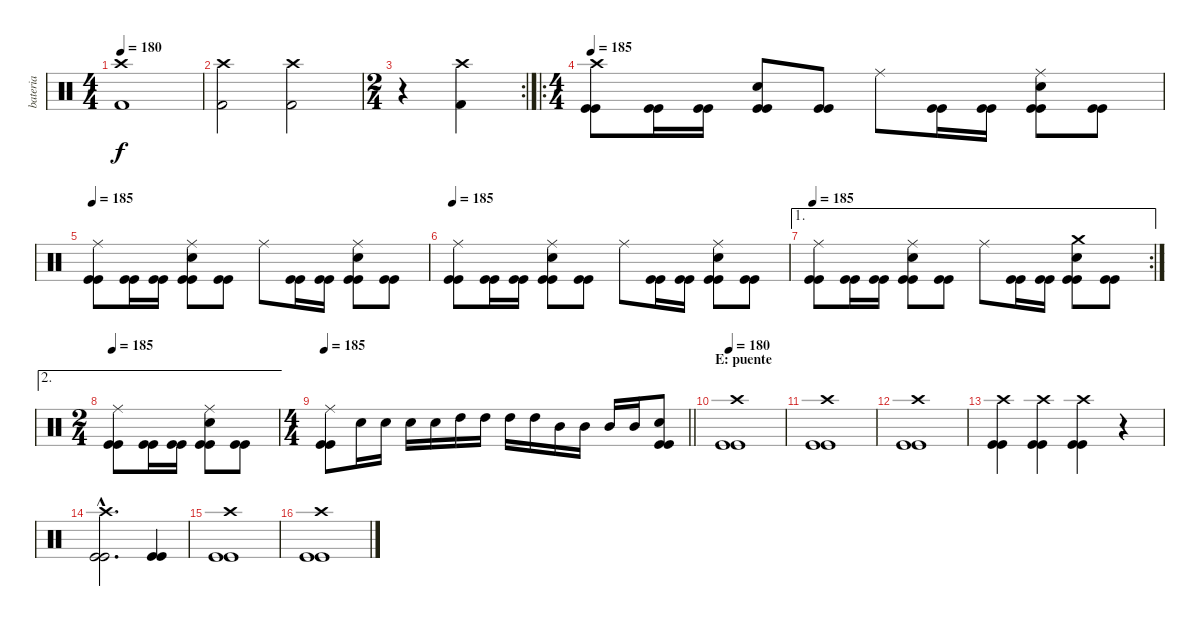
\track ("bateria" "bateria") {instrument percussion}
\staff {score}
\articulation defaults
\ts (4 4)
\tempo 180
\clef neutral
\ks c
("Crash high (hit)" "Kick (hit) 2").1{dy f} |
("Crash high (hit)" "Kick (hit) 2").2 ("Crash high (hit)" "Kick (hit) 2").2 |
\rc 2
\ts (2 4)
r.4 ("Crash high (hit)" "Kick (hit) 2").4 |
\ro
\ts (4 4)
\tempo 185
("Crash high (hit)" "Kick (hit)" "Kick (hit)").8 ("Kick (hit)" "Kick (hit)").16 ("Kick (hit)" "Kick (hit)").16 ("Snare (hit) 2" "Kick (hit)" "Kick (hit)").8 ("Kick (hit)" "Kick (hit)").8 "Ride (middle)".8 ("Kick (hit)" "Kick (hit)").16 ("Kick (hit)" "Kick (hit)").16 ("Ride (middle)" "Snare (hit) 2" "Kick (hit)" "Kick (hit)").8 ("Kick (hit)" "Kick (hit)").8 |
\tempo 185
("Ride (middle)" "Kick (hit)" "Kick (hit)").8 ("Kick (hit)" "Kick (hit)").16 ("Kick (hit)" "Kick (hit)").16 ("Ride (middle)" "Snare (hit) 2" "Kick (hit)" "Kick (hit)").8 ("Kick (hit)" "Kick (hit)").8 "Ride (middle)".8 ("Kick (hit)" "Kick (hit)").16 ("Kick (hit)" "Kick (hit)").16 ("Ride (middle)" "Snare (hit) 2" "Kick (hit)" "Kick (hit)").8 ("Kick (hit)" "Kick (hit)").8 |
\tempo 185
("Ride (middle)" "Kick (hit)" "Kick (hit)").8 ("Kick (hit)" "Kick (hit)").16 ("Kick (hit)" "Kick (hit)").16 ("Ride (middle)" "Snare (hit) 2" "Kick (hit)" "Kick (hit)").8 ("Kick (hit)" "Kick (hit)").8 "Ride (middle)".8 ("Kick (hit)" "Kick (hit)").16 ("Kick (hit)" "Kick (hit)").16 ("Ride (middle)" "Snare (hit) 2" "Kick (hit)" "Kick (hit)").8 ("Kick (hit)" "Kick (hit)").8 |
\ae 1
\rc 2
\tempo 185
("Ride (middle)" "Kick (hit)" "Kick (hit)").8 ("Kick (hit)" "Kick (hit)").16 ("Kick (hit)" "Kick (hit)").16 ("Ride (middle)" "Snare (hit) 2" "Kick (hit)" "Kick (hit)").8 ("Kick (hit)" "Kick (hit)").8 "Ride (middle)".8 ("Kick (hit)" "Kick (hit)").16 ("Kick (hit)" "Kick (hit)").16 ("Crash medium (hit)" "Snare (hit) 2" "Kick (hit)" "Kick (hit)").8 ("Kick (hit)" "Kick (hit)").8 |
\ae 2
\ts (2 4)
\tempo 185
("Ride (middle)" "Kick (hit)" "Kick (hit)").8 ("Kick (hit)" "Kick (hit)").16 ("Kick (hit)" "Kick (hit)").16 ("Ride (middle)" "Snare (hit) 2" "Kick (hit)" "Kick (hit)").8 ("Kick (hit)" "Kick (hit)").8 |
\ts (4 4)
\tempo 185
\barLineRight lightlight
("Ride (middle)" "Kick (hit)" "Kick (hit)").8 "Snare (hit) 2".16 "Snare (hit) 2".16 "Snare (hit) 2".16 "Snare (hit) 2".16 "High Tom (hit)".16 "High Tom (hit)".16 "High Tom (hit)".16 "High Tom (hit)".16 "Mid Tom (hit)".16 "Mid Tom (hit)".16 "Mid Tom (hit)".16 "Mid Tom (hit)".16 ("Snare (hit) 2" "Kick (hit)" "Kick (hit)").8 |
\section ("" "E: puente")
\tempo 180
("Crash high (hit)" "Kick (hit)" "Kick (hit)").1 |
("Crash high (hit)" "Kick (hit)" "Kick (hit)").1 |
("Crash high (hit)" "Kick (hit)" "Kick (hit)").1 |
("Crash high (hit)" "Kick (hit)" "Kick (hit)").4 ("Crash high (hit)" "Kick (hit)" "Kick (hit)").4 ("Crash high (hit)" "Kick (hit)" "Kick (hit)").4 r.4 |
("Crash high (hit)"{hac} "Kick (hit)"{hac} "Kick (hit)"{hac}).2{d} ("Kick (hit)" "Kick (hit)").4 |
("Crash high (hit)" "Kick (hit)" "Kick (hit)").1 |
("Crash high (hit)" "Kick (hit)" "Kick (hit)").1
